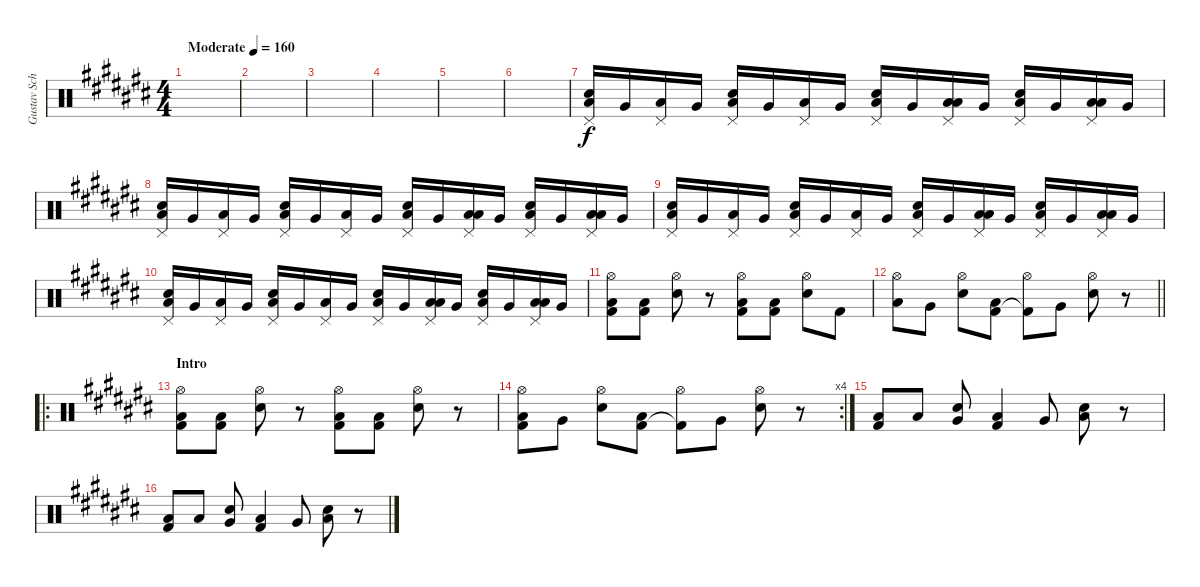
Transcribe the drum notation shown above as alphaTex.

\track ("Gustav Schäfer" "Gustav Sch") {instrument percussion}
\staff {score}
\articulation defaults
\ts (4 4)
\tempo (160 "Moderate")
\clef neutral
\ks c#
|
|
|
|
|
|
("Low Floor Tom (hit)" "Electric Snare (hit)" "Pedal Hi-Hat (hit)").16 "Very Low Tom (hit)".16 ("Low Floor Tom (hit)" "Pedal Hi-Hat (hit)").16 "Very Low Tom (hit)".16 ("Low Floor Tom (hit)" "Electric Snare (hit)" "Pedal Hi-Hat (hit)").16 "Very Low Tom (hit)".16 ("Low Floor Tom (hit)" "Pedal Hi-Hat (hit)").16 "Very Low Tom (hit)".16 ("Low Floor Tom (hit)" "Electric Snare (hit)" "Pedal Hi-Hat (hit)").16 "Very Low Tom (hit)".16 ("Low Floor Tom (hit)" "Low Tom (hit)" "Pedal Hi-Hat (hit)").16 "Very Low Tom (hit)".16 ("Low Floor Tom (hit)" "Electric Snare (hit)" "Pedal Hi-Hat (hit)").16 "Very Low Tom (hit)".16 ("Low Floor Tom (hit)" "Low Tom (hit)" "Pedal Hi-Hat (hit)").16 "Very Low Tom (hit)".16 |
("Low Floor Tom (hit)" "Electric Snare (hit)" "Pedal Hi-Hat (hit)").16 "Very Low Tom (hit)".16 ("Low Floor Tom (hit)" "Pedal Hi-Hat (hit)").16 "Very Low Tom (hit)".16 ("Low Floor Tom (hit)" "Electric Snare (hit)" "Pedal Hi-Hat (hit)").16 "Very Low Tom (hit)".16 ("Low Floor Tom (hit)" "Pedal Hi-Hat (hit)").16 "Very Low Tom (hit)".16 ("Low Floor Tom (hit)" "Electric Snare (hit)" "Pedal Hi-Hat (hit)").16 "Very Low Tom (hit)".16 ("Low Floor Tom (hit)" "Low Tom (hit)" "Pedal Hi-Hat (hit)").16 "Very Low Tom (hit)".16 ("Low Floor Tom (hit)" "Electric Snare (hit)" "Pedal Hi-Hat (hit)").16 "Very Low Tom (hit)".16 ("Low Floor Tom (hit)" "Low Tom (hit)" "Pedal Hi-Hat (hit)").16 "Very Low Tom (hit)".16 |
("Low Floor Tom (hit)" "Electric Snare (hit)" "Pedal Hi-Hat (hit)").16 "Very Low Tom (hit)".16 ("Low Floor Tom (hit)" "Pedal Hi-Hat (hit)").16 "Very Low Tom (hit)".16 ("Low Floor Tom (hit)" "Electric Snare (hit)" "Pedal Hi-Hat (hit)").16 "Very Low Tom (hit)".16 ("Low Floor Tom (hit)" "Pedal Hi-Hat (hit)").16 "Very Low Tom (hit)".16 ("Low Floor Tom (hit)" "Electric Snare (hit)" "Pedal Hi-Hat (hit)").16 "Very Low Tom (hit)".16 ("Low Floor Tom (hit)" "Low Tom (hit)" "Pedal Hi-Hat (hit)").16 "Very Low Tom (hit)".16 ("Low Floor Tom (hit)" "Electric Snare (hit)" "Pedal Hi-Hat (hit)").16 "Very Low Tom (hit)".16 ("Low Floor Tom (hit)" "Low Tom (hit)" "Pedal Hi-Hat (hit)").16 "Very Low Tom (hit)".16 |
("Low Floor Tom (hit)" "Electric Snare (hit)" "Pedal Hi-Hat (hit)").16 "Very Low Tom (hit)".16 ("Low Floor Tom (hit)" "Pedal Hi-Hat (hit)").16 "Very Low Tom (hit)".16 ("Low Floor Tom (hit)" "Electric Snare (hit)" "Pedal Hi-Hat (hit)").16 "Very Low Tom (hit)".16 ("Low Floor Tom (hit)" "Pedal Hi-Hat (hit)").16 "Very Low Tom (hit)".16 ("Low Floor Tom (hit)" "Electric Snare (hit)" "Pedal Hi-Hat (hit)").16 "Very Low Tom (hit)".16 ("Low Floor Tom (hit)" "Low Tom (hit)" "Pedal Hi-Hat (hit)").16 "Very Low Tom (hit)".16 ("Low Floor Tom (hit)" "Electric Snare (hit)" "Pedal Hi-Hat (hit)").16 "Very Low Tom (hit)".16 ("Low Floor Tom (hit)" "Low Tom (hit)" "Pedal Hi-Hat (hit)").16 "Very Low Tom (hit)".16 |
("Low Floor Tom (hit)" "Kick (hit) 2" "Hi-Hat (open)").8 ("Low Floor Tom (hit)" "Kick (hit) 2").8 ("Electric Snare (hit)" "Hi-Hat (open)").8 r.8 ("Low Floor Tom (hit)" "Kick (hit) 2" "Hi-Hat (open)").8 ("Low Floor Tom (hit)" "Kick (hit) 2").8 ("Electric Snare (hit)" "Hi-Hat (open)").8 "Kick (hit) 2".8 |
\barLineRight lightlight
("Low Floor Tom (hit)" "Hi-Hat (open)").8 "Very Low Tom (hit)".8 ("Electric Snare (hit)" "Hi-Hat (open)").8 ("Low Floor Tom (hit)" "Kick (hit) 2").8 ("Hi-Hat (open)" "Kick (hit) 2"{t}).8 "Very Low Tom (hit)".8 ("Electric Snare (hit)" "Hi-Hat (open)").8 r.8 |
\ro
\section ("" "Intro")
("Low Floor Tom (hit)" "Kick (hit) 2" "Hi-Hat (open)").8 ("Low Floor Tom (hit)" "Kick (hit) 2").8 ("Electric Snare (hit)" "Hi-Hat (open)").8 r.8 ("Low Floor Tom (hit)" "Kick (hit) 2" "Hi-Hat (open)").8 ("Low Floor Tom (hit)" "Kick (hit) 2").8 ("Electric Snare (hit)" "Hi-Hat (open)").8 r.8 |
\rc 4
("Kick (hit) 2" "Low Floor Tom (hit)" "Hi-Hat (open)").8 "Very Low Tom (hit)".8 ("Electric Snare (hit)" "Hi-Hat (open)").8 ("Low Floor Tom (hit)" "Kick (hit) 2").8 ("Hi-Hat (open)" "Kick (hit) 2"{t}).8 "Very Low Tom (hit)".8 ("Electric Snare (hit)" "Hi-Hat (open)").8 r.8 |
("Low Floor Tom (hit)" "Kick (hit) 2").8 "Low Floor Tom (hit)".8 ("Electric Snare (hit)" "Very Low Tom (hit)").8 ("Low Floor Tom (hit)" "Kick (hit) 2").4 "Very Low Tom (hit)".8 ("Electric Snare (hit)" "Low Floor Tom (hit)").8 r.8 |
("Low Floor Tom (hit)" "Kick (hit) 2").8 "Low Floor Tom (hit)".8 ("Electric Snare (hit)" "Very Low Tom (hit)").8 ("Low Floor Tom (hit)" "Kick (hit) 2").4 "Very Low Tom (hit)".8 ("Electric Snare (hit)" "Low Floor Tom (hit)").8 r.8
